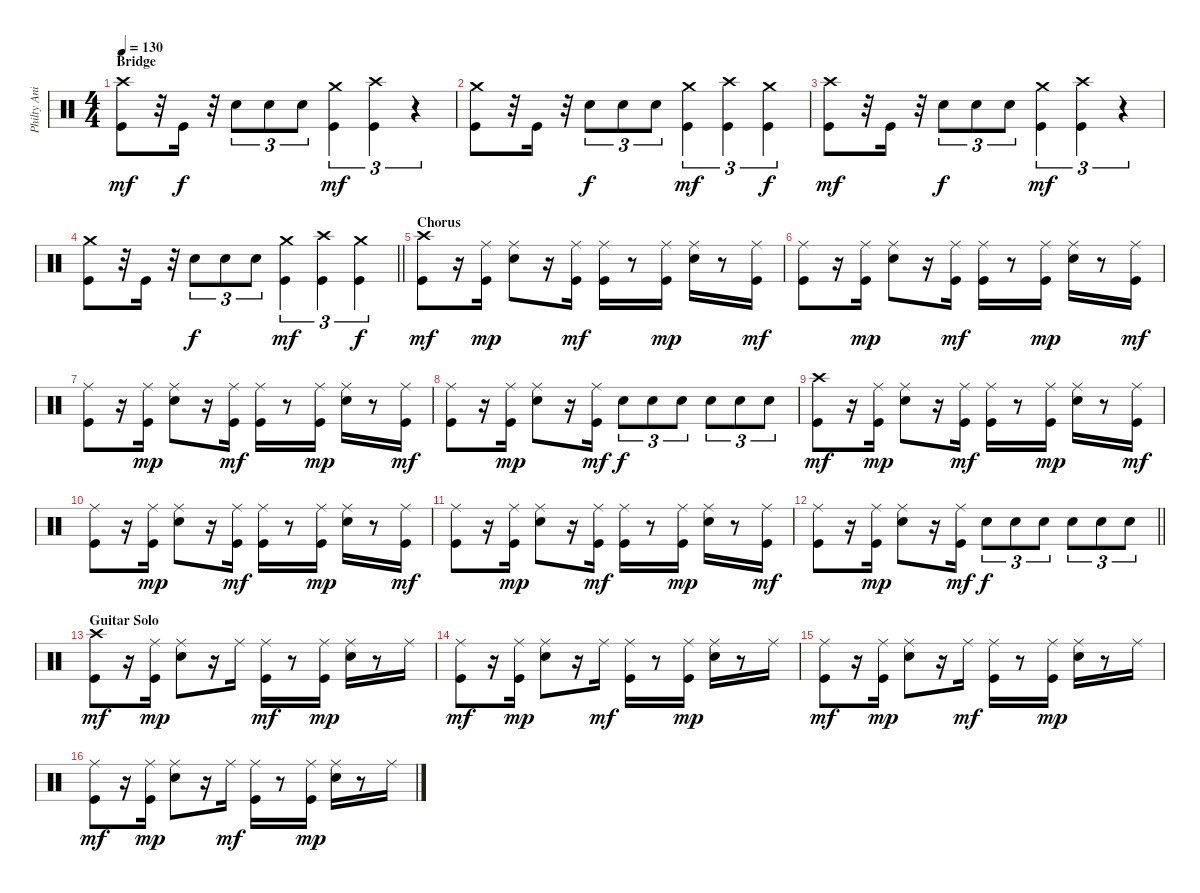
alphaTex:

\track ("Philty Animal Taylor" "Philty Ani") {instrument percussion}
\staff {score}
\articulation defaults
\ts (4 4)
\section ("" "Bridge")
\tempo 130
\clef neutral
\ks c
("Crash high (hit)" "Kick (hit)").8{dy mf} r.32 "Kick (hit)".16{dy f} r.32 "Snare (hit) 2".8{tu (3 2)} "Snare (hit) 2".8{tu (3 2)} "Snare (hit) 2".8{tu (3 2)} ("Crash medium (hit)" "Kick (hit)").4{tu (3 2) dy mf} ("Crash high (hit)" "Kick (hit)").4{tu (3 2)} r.4{tu (3 2)} |
("Crash medium (hit)" "Kick (hit)").8 r.32 "Kick (hit)".16 r.32 "Snare (hit) 2".8{tu (3 2) dy f} "Snare (hit) 2".8{tu (3 2)} "Snare (hit) 2".8{tu (3 2)} ("Crash medium (hit)" "Kick (hit)").4{tu (3 2) dy mf} ("Crash high (hit)" "Kick (hit)").4{tu (3 2)} ("Crash medium (hit)" "Kick (hit)").4{tu (3 2) dy f} |
("Crash high (hit)" "Kick (hit)").8{dy mf} r.32 "Kick (hit)".16 r.32 "Snare (hit) 2".8{tu (3 2) dy f} "Snare (hit) 2".8{tu (3 2)} "Snare (hit) 2".8{tu (3 2)} ("Crash medium (hit)" "Kick (hit)").4{tu (3 2) dy mf} ("Crash high (hit)" "Kick (hit)").4{tu (3 2)} r.4{tu (3 2)} |
\barLineRight lightlight
("Crash medium (hit)" "Kick (hit)").8 r.32 "Kick (hit)".16 r.32 "Snare (hit) 2".8{tu (3 2) dy f} "Snare (hit) 2".8{tu (3 2)} "Snare (hit) 2".8{tu (3 2)} ("Crash medium (hit)" "Kick (hit)").4{tu (3 2) dy mf} ("Crash high (hit)" "Kick (hit)").4{tu (3 2)} ("Crash medium (hit)" "Kick (hit)").4{tu (3 2) dy f} |
\section ("" "Chorus")
("Crash high (hit)" "Kick (hit)").8{dy mf} r.16 ("Ride (middle)" "Kick (hit)").16{dy mp} ("Ride (middle)" "Snare (hit) 2").8 r.16 ("Ride (middle)" "Kick (hit)").16{dy mf} ("Ride (middle)" "Kick (hit)").16 r.8 ("Ride (middle)" "Kick (hit)").16{dy mp} ("Ride (middle)" "Snare (hit) 2").16 r.8 ("Ride (middle)" "Kick (hit)").16{dy mf} |
("Ride (middle)" "Kick (hit)").8 r.16 ("Ride (middle)" "Kick (hit)").16{dy mp} ("Ride (middle)" "Snare (hit) 2").8 r.16 ("Ride (middle)" "Kick (hit)").16{dy mf} ("Ride (middle)" "Kick (hit)").16 r.8 ("Ride (middle)" "Kick (hit)").16{dy mp} ("Ride (middle)" "Snare (hit) 2").16 r.8 ("Ride (middle)" "Kick (hit)").16{dy mf} |
("Ride (middle)" "Kick (hit)").8 r.16 ("Ride (middle)" "Kick (hit)").16{dy mp} ("Ride (middle)" "Snare (hit) 2").8 r.16 ("Ride (middle)" "Kick (hit)").16{dy mf} ("Ride (middle)" "Kick (hit)").16 r.8 ("Ride (middle)" "Kick (hit)").16{dy mp} ("Ride (middle)" "Snare (hit) 2").16 r.8 ("Ride (middle)" "Kick (hit)").16{dy mf} |
("Ride (middle)" "Kick (hit)").8 r.16 ("Ride (middle)" "Kick (hit)").16{dy mp} ("Ride (middle)" "Snare (hit) 2").8 r.16 ("Ride (middle)" "Kick (hit)").16{dy mf} "Snare (hit) 2".8{tu (3 2) dy f} "Snare (hit) 2".8{tu (3 2)} "Snare (hit) 2".8{tu (3 2)} "Snare (hit) 2".8{tu (3 2)} "Snare (hit) 2".8{tu (3 2)} "Snare (hit) 2".8{tu (3 2)} |
("Crash high (hit)" "Kick (hit)").8{dy mf} r.16 ("Ride (middle)" "Kick (hit)").16{dy mp} ("Ride (middle)" "Snare (hit) 2").8 r.16 ("Ride (middle)" "Kick (hit)").16{dy mf} ("Ride (middle)" "Kick (hit)").16 r.8 ("Ride (middle)" "Kick (hit)").16{dy mp} ("Ride (middle)" "Snare (hit) 2").16 r.8 ("Ride (middle)" "Kick (hit)").16{dy mf} |
("Ride (middle)" "Kick (hit)").8 r.16 ("Ride (middle)" "Kick (hit)").16{dy mp} ("Ride (middle)" "Snare (hit) 2").8 r.16 ("Ride (middle)" "Kick (hit)").16{dy mf} ("Ride (middle)" "Kick (hit)").16 r.8 ("Ride (middle)" "Kick (hit)").16{dy mp} ("Ride (middle)" "Snare (hit) 2").16 r.8 ("Ride (middle)" "Kick (hit)").16{dy mf} |
("Ride (middle)" "Kick (hit)").8 r.16 ("Ride (middle)" "Kick (hit)").16{dy mp} ("Ride (middle)" "Snare (hit) 2").8 r.16 ("Ride (middle)" "Kick (hit)").16{dy mf} ("Ride (middle)" "Kick (hit)").16 r.8 ("Ride (middle)" "Kick (hit)").16{dy mp} ("Ride (middle)" "Snare (hit) 2").16 r.8 ("Ride (middle)" "Kick (hit)").16{dy mf} |
\barLineRight lightlight
("Ride (middle)" "Kick (hit)").8 r.16 ("Ride (middle)" "Kick (hit)").16{dy mp} ("Ride (middle)" "Snare (hit) 2").8 r.16 ("Ride (middle)" "Kick (hit)").16{dy mf} "Snare (hit) 2".8{tu (3 2) dy f} "Snare (hit) 2".8{tu (3 2)} "Snare (hit) 2".8{tu (3 2)} "Snare (hit) 2".8{tu (3 2)} "Snare (hit) 2".8{tu (3 2)} "Snare (hit) 2".8{tu (3 2)} |
\section ("" "Guitar Solo")
("Crash high (hit)" "Kick (hit)").8{dy mf} r.16 ("Ride (middle)" "Kick (hit)").16{dy mp} ("Ride (middle)" "Snare (hit) 2").8 r.16 "Ride (middle)".16 ("Ride (middle)" "Kick (hit)").16{dy mf} r.8 ("Ride (middle)" "Kick (hit)").16{dy mp} ("Ride (middle)" "Snare (hit) 2").16 r.8 "Ride (middle)".16 |
("Ride (middle)" "Kick (hit)").8{dy mf} r.16 ("Ride (middle)" "Kick (hit)").16{dy mp} ("Ride (middle)" "Snare (hit) 2").8 r.16 "Ride (middle)".16{dy mf} ("Ride (middle)" "Kick (hit)").16 r.8 ("Ride (middle)" "Kick (hit)").16{dy mp} ("Ride (middle)" "Snare (hit) 2").16 r.8 "Ride (middle)".16 |
("Ride (middle)" "Kick (hit)").8{dy mf} r.16 ("Ride (middle)" "Kick (hit)").16{dy mp} ("Ride (middle)" "Snare (hit) 2").8 r.16 "Ride (middle)".16{dy mf} ("Ride (middle)" "Kick (hit)").16 r.8 ("Ride (middle)" "Kick (hit)").16{dy mp} ("Ride (middle)" "Snare (hit) 2").16 r.8 "Ride (middle)".16 |
("Ride (middle)" "Kick (hit)").8{dy mf} r.16 ("Ride (middle)" "Kick (hit)").16{dy mp} ("Ride (middle)" "Snare (hit) 2").8 r.16 "Ride (middle)".16{dy mf} ("Ride (middle)" "Kick (hit)").16 r.8 ("Ride (middle)" "Kick (hit)").16{dy mp} ("Ride (middle)" "Snare (hit) 2").16 r.8 "Ride (middle)".16
